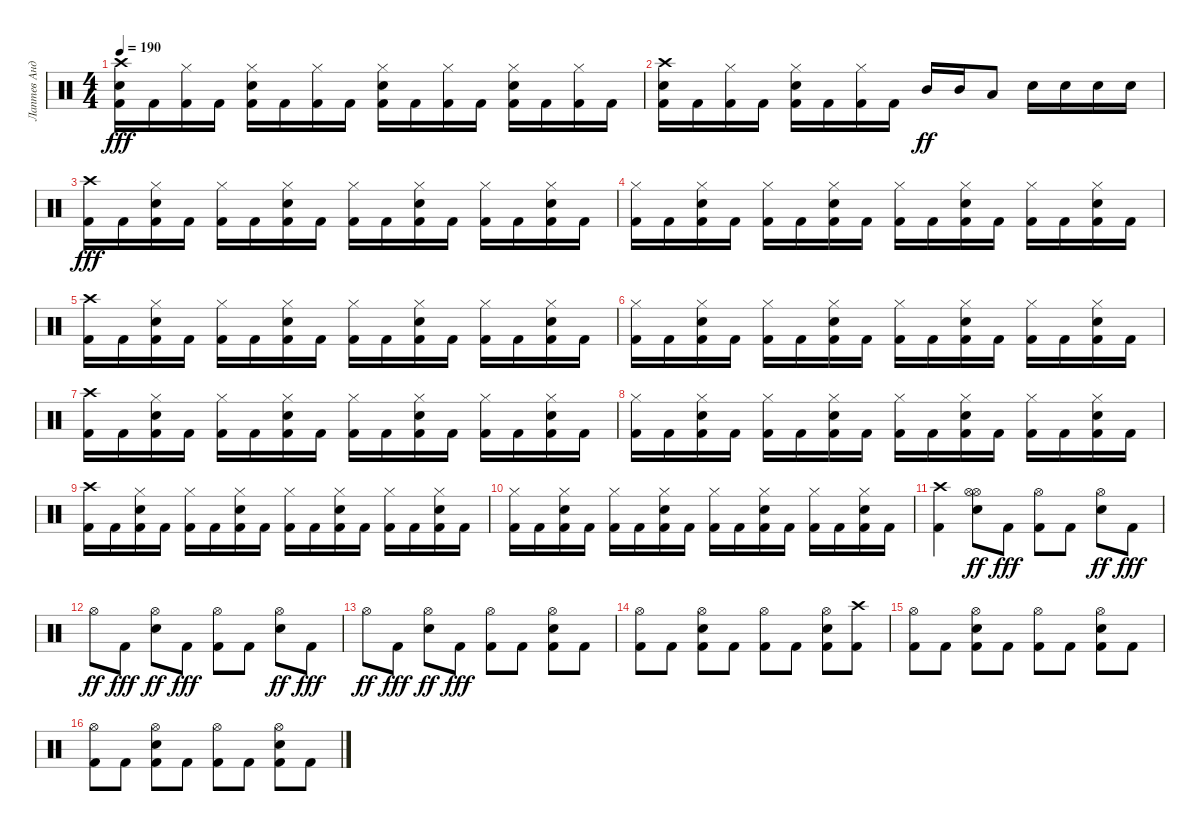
\track ("Лаптев Андрей" "Лаптев Анд") {instrument percussion}
\staff {score}
\articulation defaults
\ts (4 4)
\tempo 190
\clef neutral
\ks c
("Electric Snare (hit)" "Crash high (hit)" "Kick (hit) 2").16{dy fff} "Kick (hit) 2".16 ("Hi-Hat (closed)" "Kick (hit) 2").16 "Kick (hit) 2".16 ("Electric Snare (hit)" "Hi-Hat (closed)" "Kick (hit) 2").16 "Kick (hit) 2".16 ("Hi-Hat (closed)" "Kick (hit) 2").16 "Kick (hit) 2".16 ("Electric Snare (hit)" "Hi-Hat (closed)" "Kick (hit) 2").16 "Kick (hit) 2".16 ("Hi-Hat (closed)" "Kick (hit) 2").16 "Kick (hit) 2".16 ("Electric Snare (hit)" "Hi-Hat (closed)" "Kick (hit) 2").16 "Kick (hit) 2".16 ("Hi-Hat (closed)" "Kick (hit) 2").16 "Kick (hit) 2".16 |
("Electric Snare (hit)" "Crash high (hit)" "Kick (hit) 2").16 "Kick (hit) 2".16 ("Hi-Hat (closed)" "Kick (hit) 2").16 "Kick (hit) 2".16 ("Electric Snare (hit)" "Hi-Hat (closed)" "Kick (hit) 2").16 "Kick (hit) 2".16 ("Hi-Hat (closed)" "Kick (hit) 2").16 "Kick (hit) 2".16 "Mid Tom (hit)".16{dy ff} "Mid Tom (hit)".16 "Low Tom (hit)".8 "Electric Snare (hit)".16 "Electric Snare (hit)".16 "Electric Snare (hit)".16 "Electric Snare (hit)".16 |
("Crash high (hit)" "Kick (hit) 2").16{dy fff} "Kick (hit) 2".16 ("Electric Snare (hit)" "Hi-Hat (closed)" "Kick (hit) 2").16 "Kick (hit) 2".16 ("Hi-Hat (closed)" "Kick (hit) 2").16 "Kick (hit) 2".16 ("Electric Snare (hit)" "Hi-Hat (closed)" "Kick (hit) 2").16 "Kick (hit) 2".16 ("Hi-Hat (closed)" "Kick (hit) 2").16 "Kick (hit) 2".16 ("Hi-Hat (closed)" "Electric Snare (hit)" "Kick (hit) 2").16 "Kick (hit) 2".16 ("Hi-Hat (closed)" "Kick (hit) 2").16 "Kick (hit) 2".16 ("Hi-Hat (closed)" "Electric Snare (hit)" "Kick (hit) 2").16 "Kick (hit) 2".16 |
("Hi-Hat (closed)" "Kick (hit) 2").16 "Kick (hit) 2".16 ("Electric Snare (hit)" "Hi-Hat (closed)" "Kick (hit) 2").16 "Kick (hit) 2".16 ("Hi-Hat (closed)" "Kick (hit) 2").16 "Kick (hit) 2".16 ("Electric Snare (hit)" "Hi-Hat (closed)" "Kick (hit) 2").16 "Kick (hit) 2".16 ("Hi-Hat (closed)" "Kick (hit) 2").16 "Kick (hit) 2".16 ("Electric Snare (hit)" "Hi-Hat (closed)" "Kick (hit) 2").16 "Kick (hit) 2".16 ("Hi-Hat (closed)" "Kick (hit) 2").16 "Kick (hit) 2".16 ("Electric Snare (hit)" "Hi-Hat (closed)" "Kick (hit) 2").16 "Kick (hit) 2".16 |
("Crash high (hit)" "Kick (hit) 2").16 "Kick (hit) 2".16 ("Electric Snare (hit)" "Hi-Hat (closed)" "Kick (hit) 2").16 "Kick (hit) 2".16 ("Hi-Hat (closed)" "Kick (hit) 2").16 "Kick (hit) 2".16 ("Electric Snare (hit)" "Hi-Hat (closed)" "Kick (hit) 2").16 "Kick (hit) 2".16 ("Hi-Hat (closed)" "Kick (hit) 2").16 "Kick (hit) 2".16 ("Hi-Hat (closed)" "Electric Snare (hit)" "Kick (hit) 2").16 "Kick (hit) 2".16 ("Hi-Hat (closed)" "Kick (hit) 2").16 "Kick (hit) 2".16 ("Hi-Hat (closed)" "Electric Snare (hit)" "Kick (hit) 2").16 "Kick (hit) 2".16 |
("Hi-Hat (closed)" "Kick (hit) 2").16 "Kick (hit) 2".16 ("Electric Snare (hit)" "Hi-Hat (closed)" "Kick (hit) 2").16 "Kick (hit) 2".16 ("Hi-Hat (closed)" "Kick (hit) 2").16 "Kick (hit) 2".16 ("Electric Snare (hit)" "Hi-Hat (closed)" "Kick (hit) 2").16 "Kick (hit) 2".16 ("Hi-Hat (closed)" "Kick (hit) 2").16 "Kick (hit) 2".16 ("Electric Snare (hit)" "Hi-Hat (closed)" "Kick (hit) 2").16 "Kick (hit) 2".16 ("Hi-Hat (closed)" "Kick (hit) 2").16 "Kick (hit) 2".16 ("Electric Snare (hit)" "Hi-Hat (closed)" "Kick (hit) 2").16 "Kick (hit) 2".16 |
("Crash high (hit)" "Kick (hit) 2").16 "Kick (hit) 2".16 ("Electric Snare (hit)" "Hi-Hat (closed)" "Kick (hit) 2").16 "Kick (hit) 2".16 ("Hi-Hat (closed)" "Kick (hit) 2").16 "Kick (hit) 2".16 ("Electric Snare (hit)" "Hi-Hat (closed)" "Kick (hit) 2").16 "Kick (hit) 2".16 ("Hi-Hat (closed)" "Kick (hit) 2").16 "Kick (hit) 2".16 ("Hi-Hat (closed)" "Electric Snare (hit)" "Kick (hit) 2").16 "Kick (hit) 2".16 ("Hi-Hat (closed)" "Kick (hit) 2").16 "Kick (hit) 2".16 ("Hi-Hat (closed)" "Electric Snare (hit)" "Kick (hit) 2").16 "Kick (hit) 2".16 |
("Hi-Hat (closed)" "Kick (hit) 2").16 "Kick (hit) 2".16 ("Electric Snare (hit)" "Hi-Hat (closed)" "Kick (hit) 2").16 "Kick (hit) 2".16 ("Hi-Hat (closed)" "Kick (hit) 2").16 "Kick (hit) 2".16 ("Electric Snare (hit)" "Hi-Hat (closed)" "Kick (hit) 2").16 "Kick (hit) 2".16 ("Hi-Hat (closed)" "Kick (hit) 2").16 "Kick (hit) 2".16 ("Electric Snare (hit)" "Hi-Hat (closed)" "Kick (hit) 2").16 "Kick (hit) 2".16 ("Hi-Hat (closed)" "Kick (hit) 2").16 "Kick (hit) 2".16 ("Electric Snare (hit)" "Hi-Hat (closed)" "Kick (hit) 2").16 "Kick (hit) 2".16 |
("Crash high (hit)" "Kick (hit) 2").16 "Kick (hit) 2".16 ("Electric Snare (hit)" "Hi-Hat (closed)" "Kick (hit) 2").16 "Kick (hit) 2".16 ("Hi-Hat (closed)" "Kick (hit) 2").16 "Kick (hit) 2".16 ("Electric Snare (hit)" "Hi-Hat (closed)" "Kick (hit) 2").16 "Kick (hit) 2".16 ("Hi-Hat (closed)" "Kick (hit) 2").16 "Kick (hit) 2".16 ("Hi-Hat (closed)" "Electric Snare (hit)" "Kick (hit) 2").16 "Kick (hit) 2".16 ("Hi-Hat (closed)" "Kick (hit) 2").16 "Kick (hit) 2".16 ("Hi-Hat (closed)" "Electric Snare (hit)" "Kick (hit) 2").16 "Kick (hit) 2".16 |
("Hi-Hat (closed)" "Kick (hit) 2").16 "Kick (hit) 2".16 ("Electric Snare (hit)" "Hi-Hat (closed)" "Kick (hit) 2").16 "Kick (hit) 2".16 ("Hi-Hat (closed)" "Kick (hit) 2").16 "Kick (hit) 2".16 ("Electric Snare (hit)" "Hi-Hat (closed)" "Kick (hit) 2").16 "Kick (hit) 2".16 ("Hi-Hat (closed)" "Kick (hit) 2").16 "Kick (hit) 2".16 ("Electric Snare (hit)" "Hi-Hat (closed)" "Kick (hit) 2").16 "Kick (hit) 2".16 ("Hi-Hat (closed)" "Kick (hit) 2").16 "Kick (hit) 2".16 ("Electric Snare (hit)" "Hi-Hat (closed)" "Kick (hit) 2").16 "Kick (hit) 2".16 |
("Crash high (hit)" "Kick (hit) 2").4 ("Hi-Hat (open)" "Hi-Hat (open)" "Electric Snare (hit)").8{dy ff} "Kick (hit) 2".8{dy fff} ("Hi-Hat (open)" "Kick (hit) 2").8 "Kick (hit) 2".8 ("Electric Snare (hit)" "Hi-Hat (open)").8{dy ff} "Kick (hit) 2".8{dy fff} |
"Hi-Hat (open)".8{dy ff} "Kick (hit) 2".8{dy fff} ("Electric Snare (hit)" "Hi-Hat (open)").8{dy ff} "Kick (hit) 2".8{dy fff} ("Hi-Hat (open)" "Kick (hit) 2").8 "Kick (hit) 2".8 ("Electric Snare (hit)" "Hi-Hat (open)").8{dy ff} "Kick (hit) 2".8{dy fff} |
"Hi-Hat (open)".8{dy ff} "Kick (hit) 2".8{dy fff} ("Electric Snare (hit)" "Hi-Hat (open)").8{dy ff} "Kick (hit) 2".8{dy fff} ("Hi-Hat (open)" "Kick (hit) 2").8 "Kick (hit) 2".8 ("Electric Snare (hit)" "Hi-Hat (open)" "Kick (hit) 2").8 "Kick (hit) 2".8 |
("Hi-Hat (open)" "Kick (hit) 2").8 "Kick (hit) 2".8 ("Electric Snare (hit)" "Hi-Hat (open)" "Kick (hit) 2").8 "Kick (hit) 2".8 ("Hi-Hat (open)" "Kick (hit) 2").8 "Kick (hit) 2".8 ("Hi-Hat (open)" "Electric Snare (hit)" "Kick (hit) 2").8 ("Crash high (hit)" "Kick (hit) 2").8 |
("Hi-Hat (open)" "Kick (hit) 2").8 "Kick (hit) 2".8 ("Electric Snare (hit)" "Hi-Hat (open)" "Kick (hit) 2").8 "Kick (hit) 2".8 ("Hi-Hat (open)" "Kick (hit) 2").8 "Kick (hit) 2".8 ("Hi-Hat (open)" "Electric Snare (hit)" "Kick (hit) 2").8 "Kick (hit) 2".8 |
("Hi-Hat (open)" "Kick (hit) 2").8 "Kick (hit) 2".8 ("Hi-Hat (open)" "Electric Snare (hit)" "Kick (hit) 2").8 "Kick (hit) 2".8 ("Hi-Hat (open)" "Kick (hit) 2").8 "Kick (hit) 2".8 ("Electric Snare (hit)" "Hi-Hat (open)" "Kick (hit) 2").8 "Kick (hit) 2".8
